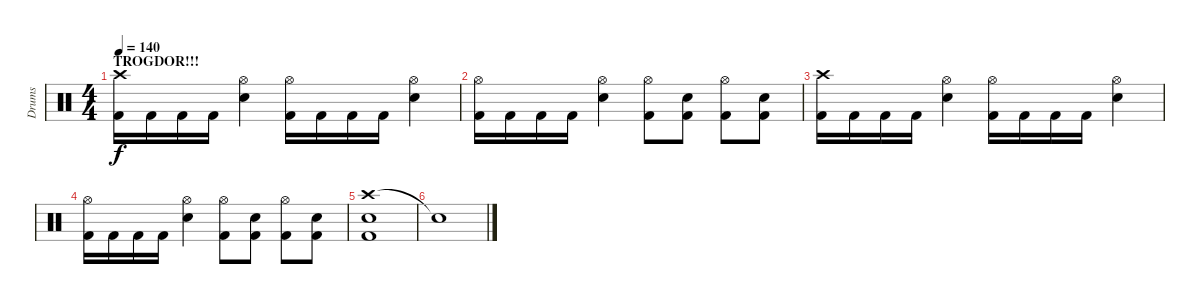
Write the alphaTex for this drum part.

\track ("Drums" "Drums") {instrument percussion}
\staff {score}
\articulation defaults
\ts (4 4)
\section ("" "TROGDOR!!!")
\tempo 140
\clef neutral
\ks c
("Crash high (hit)" "Kick (hit) 2").16{dy f} "Kick (hit) 2".16 "Kick (hit) 2".16 "Kick (hit) 2".16 ("Hi-Hat (open)" "Electric Snare (hit)").4 ("Hi-Hat (open)" "Kick (hit) 2").16 "Kick (hit) 2".16 "Kick (hit) 2".16 "Kick (hit) 2".16 ("Hi-Hat (open)" "Electric Snare (hit)").4 |
("Hi-Hat (open)" "Kick (hit) 2").16 "Kick (hit) 2".16 "Kick (hit) 2".16 "Kick (hit) 2".16 ("Hi-Hat (open)" "Electric Snare (hit)").4 ("Hi-Hat (open)" "Kick (hit) 2").8 ("Electric Snare (hit)" "Kick (hit) 2").8 ("Hi-Hat (open)" "Kick (hit) 2").8 ("Electric Snare (hit)" "Kick (hit) 2").8 |
("Crash high (hit)" "Kick (hit) 2").16 "Kick (hit) 2".16 "Kick (hit) 2".16 "Kick (hit) 2".16 ("Hi-Hat (open)" "Electric Snare (hit)").4 ("Hi-Hat (open)" "Kick (hit) 2").16 "Kick (hit) 2".16 "Kick (hit) 2".16 "Kick (hit) 2".16 ("Hi-Hat (open)" "Electric Snare (hit)").4 |
("Hi-Hat (open)" "Kick (hit) 2").16 "Kick (hit) 2".16 "Kick (hit) 2".16 "Kick (hit) 2".16 ("Hi-Hat (open)" "Electric Snare (hit)").4 ("Hi-Hat (open)" "Kick (hit) 2").8 ("Electric Snare (hit)" "Kick (hit) 2").8 ("Hi-Hat (open)" "Kick (hit) 2").8 ("Electric Snare (hit)" "Kick (hit) 2").8 |
("Crash high (hit)" "Electric Snare (hit)" "Kick (hit) 2").1 |
"Snare (hit)"{t}.1
